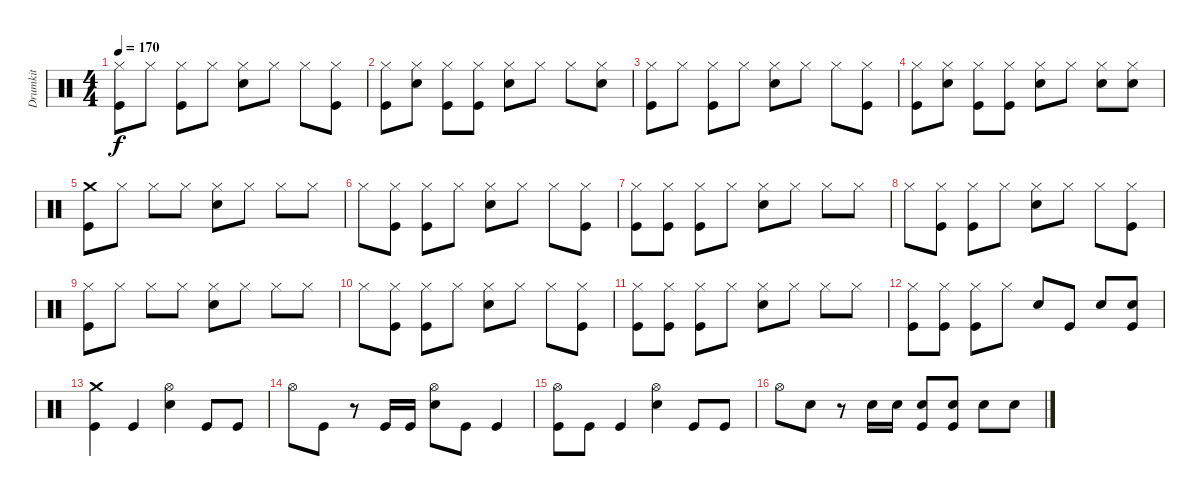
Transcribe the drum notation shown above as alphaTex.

\track ("Drumkit" "Drumkit") {instrument percussion}
\staff {score}
\articulation defaults
\ts (4 4)
\tempo 170
\clef neutral
\ks c
("Hi-Hat (closed)" "Kick (hit)").8{dy f} "Hi-Hat (closed)".8 ("Hi-Hat (closed)" "Kick (hit)").8 "Hi-Hat (closed)".8 ("Hi-Hat (closed)" "Snare (hit) 2").8 "Hi-Hat (closed)".8 "Hi-Hat (closed)".8 ("Hi-Hat (closed)" "Kick (hit)").8 |
("Hi-Hat (closed)" "Kick (hit)").8 ("Hi-Hat (closed)" "Snare (hit) 2").8 ("Hi-Hat (closed)" "Kick (hit)").8 ("Hi-Hat (closed)" "Kick (hit)").8 ("Hi-Hat (closed)" "Snare (hit) 2").8 "Hi-Hat (closed)".8 "Hi-Hat (closed)".8 ("Hi-Hat (closed)" "Snare (hit) 2").8 |
("Hi-Hat (closed)" "Kick (hit)").8 "Hi-Hat (closed)".8 ("Hi-Hat (closed)" "Kick (hit)").8 "Hi-Hat (closed)".8 ("Hi-Hat (closed)" "Snare (hit) 2").8 "Hi-Hat (closed)".8 "Hi-Hat (closed)".8 ("Hi-Hat (closed)" "Kick (hit)").8 |
("Hi-Hat (closed)" "Kick (hit)").8 ("Hi-Hat (closed)" "Snare (hit) 2").8 ("Hi-Hat (closed)" "Kick (hit)").8 ("Hi-Hat (closed)" "Kick (hit)").8 ("Hi-Hat (closed)" "Snare (hit) 2").8 "Hi-Hat (closed)".8 ("Hi-Hat (closed)" "Snare (hit) 2").8 ("Hi-Hat (closed)" "Snare (hit) 2").8 |
("Crash medium (hit)" "Kick (hit)").8 "Hi-Hat (closed)".8 "Hi-Hat (closed)".8 "Hi-Hat (closed)".8 ("Hi-Hat (closed)" "Snare (hit) 2").8 "Hi-Hat (closed)".8 "Hi-Hat (closed)".8 "Hi-Hat (closed)".8 |
"Hi-Hat (closed)".8 ("Hi-Hat (closed)" "Kick (hit)").8 ("Hi-Hat (closed)" "Kick (hit)").8 "Hi-Hat (closed)".8 ("Hi-Hat (closed)" "Snare (hit) 2").8 "Hi-Hat (closed)".8 "Hi-Hat (closed)".8 ("Hi-Hat (closed)" "Kick (hit)").8 |
("Hi-Hat (closed)" "Kick (hit)").8 ("Hi-Hat (closed)" "Kick (hit)").8 ("Hi-Hat (closed)" "Kick (hit)").8 "Hi-Hat (closed)".8 ("Hi-Hat (closed)" "Snare (hit) 2").8 "Hi-Hat (closed)".8 "Hi-Hat (closed)".8 "Hi-Hat (closed)".8 |
"Hi-Hat (closed)".8 ("Hi-Hat (closed)" "Kick (hit)").8 ("Hi-Hat (closed)" "Kick (hit)").8 "Hi-Hat (closed)".8 ("Hi-Hat (closed)" "Snare (hit) 2").8 "Hi-Hat (closed)".8 "Hi-Hat (closed)".8 ("Hi-Hat (closed)" "Kick (hit)").8 |
("Hi-Hat (closed)" "Kick (hit)").8 "Hi-Hat (closed)".8 "Hi-Hat (closed)".8 "Hi-Hat (closed)".8 ("Hi-Hat (closed)" "Snare (hit) 2").8 "Hi-Hat (closed)".8 "Hi-Hat (closed)".8 "Hi-Hat (closed)".8 |
"Hi-Hat (closed)".8 ("Hi-Hat (closed)" "Kick (hit)").8 ("Hi-Hat (closed)" "Kick (hit)").8 "Hi-Hat (closed)".8 ("Hi-Hat (closed)" "Snare (hit) 2").8 "Hi-Hat (closed)".8 "Hi-Hat (closed)".8 ("Hi-Hat (closed)" "Kick (hit)").8 |
("Hi-Hat (closed)" "Kick (hit)").8 ("Hi-Hat (closed)" "Kick (hit)").8 ("Hi-Hat (closed)" "Kick (hit)").8 "Hi-Hat (closed)".8 ("Hi-Hat (closed)" "Snare (hit) 2").8 "Hi-Hat (closed)".8 "Hi-Hat (closed)".8 "Hi-Hat (closed)".8 |
("Hi-Hat (closed)" "Kick (hit)").8 ("Hi-Hat (closed)" "Kick (hit)").8 ("Hi-Hat (closed)" "Kick (hit)").8 "Hi-Hat (closed)".8 "Snare (hit) 2".8 "Kick (hit)".8 "Snare (hit) 2".8 ("Snare (hit) 2" "Kick (hit)").8 |
("Crash medium (hit)" "Kick (hit)").4 "Kick (hit)".4 ("Hi-Hat (open)" "Snare (hit) 2").4 "Kick (hit)".8 "Kick (hit)".8 |
"Hi-Hat (open)".8 "Kick (hit)".8 r.8 "Kick (hit)".16 "Kick (hit)".16 ("Hi-Hat (open)" "Snare (hit) 2").8 "Kick (hit)".8 "Kick (hit)".4 |
("Hi-Hat (open)" "Kick (hit)").8 "Kick (hit)".8 "Kick (hit)".4 ("Hi-Hat (open)" "Snare (hit) 2").4 "Kick (hit)".8 "Kick (hit)".8 |
"Hi-Hat (open)".8 "Snare (hit) 2".8 r.8 "Snare (hit) 2".16 "Snare (hit) 2".16 ("Snare (hit) 2" "Kick (hit)").8 ("Snare (hit) 2" "Kick (hit)").8 "Snare (hit) 2".8 "Snare (hit) 2".8
